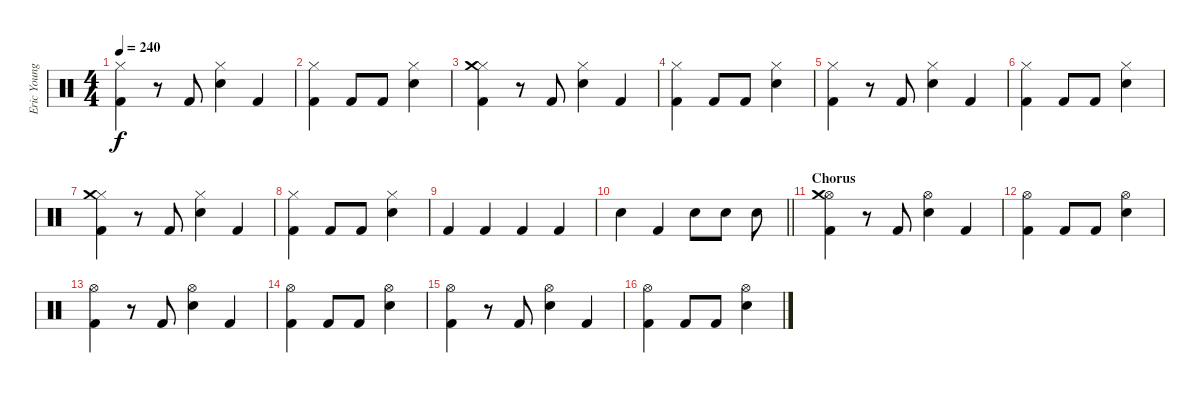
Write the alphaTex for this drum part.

\track ("Eric Young (Drums)" "Eric Young") {instrument percussion}
\staff {score}
\articulation defaults
\ts (4 4)
\tempo 240
\clef neutral
\ks c
("Hi-Hat (closed)" "Kick (hit) 2").4{dy f} r.8 "Kick (hit) 2".8 ("Hi-Hat (closed)" "Snare (hit) 2").4 "Kick (hit) 2".4 |
("Hi-Hat (closed)" "Kick (hit) 2").4 "Kick (hit) 2".8 "Kick (hit) 2".8 ("Hi-Hat (closed)" "Snare (hit) 2").4 |
("Hi-Hat (closed)" "Kick (hit) 2" "Crash medium (hit)").4 r.8 "Kick (hit) 2".8 ("Hi-Hat (closed)" "Snare (hit) 2").4 "Kick (hit) 2".4 |
("Hi-Hat (closed)" "Kick (hit) 2").4 "Kick (hit) 2".8 "Kick (hit) 2".8 ("Hi-Hat (closed)" "Snare (hit) 2").4 |
("Hi-Hat (closed)" "Kick (hit) 2").4 r.8 "Kick (hit) 2".8 ("Hi-Hat (closed)" "Snare (hit) 2").4 "Kick (hit) 2".4 |
("Hi-Hat (closed)" "Kick (hit) 2").4 "Kick (hit) 2".8 "Kick (hit) 2".8 ("Hi-Hat (closed)" "Snare (hit) 2").4 |
("Hi-Hat (closed)" "Kick (hit) 2" "Crash medium (hit)").4 r.8 "Kick (hit) 2".8 ("Hi-Hat (closed)" "Snare (hit) 2").4 "Kick (hit) 2".4 |
("Hi-Hat (closed)" "Kick (hit) 2").4 "Kick (hit) 2".8 "Kick (hit) 2".8 ("Hi-Hat (closed)" "Snare (hit) 2").4 |
"Kick (hit) 2".4 "Kick (hit) 2".4 "Kick (hit) 2".4 "Kick (hit) 2".4 |
\barLineRight lightlight "Snare (hit) 2".4 "Kick (hit) 2".4 "Snare (hit) 2".8 "Snare (hit) 2".8 "Snare (hit) 2".8
|
\section ("" "Chorus")
("Hi-Hat (open)" "Kick (hit) 2" "Crash medium (hit)").4 r.8 "Kick (hit) 2".8 ("Hi-Hat (open)" "Snare (hit) 2").4 "Kick (hit) 2".4 |
("Hi-Hat (open)" "Kick (hit) 2").4 "Kick (hit) 2".8 "Kick (hit) 2".8 ("Hi-Hat (open)" "Snare (hit) 2").4 |
("Hi-Hat (open)" "Kick (hit) 2").4 r.8 "Kick (hit) 2".8 ("Hi-Hat (open)" "Snare (hit) 2").4 "Kick (hit) 2".4 |
("Hi-Hat (open)" "Kick (hit) 2").4 "Kick (hit) 2".8 "Kick (hit) 2".8 ("Hi-Hat (open)" "Snare (hit) 2").4 |
("Hi-Hat (open)" "Kick (hit) 2").4 r.8 "Kick (hit) 2".8 ("Hi-Hat (open)" "Snare (hit) 2").4 "Kick (hit) 2".4 |
("Hi-Hat (open)" "Kick (hit) 2").4 "Kick (hit) 2".8 "Kick (hit) 2".8 ("Hi-Hat (open)" "Snare (hit) 2").4
